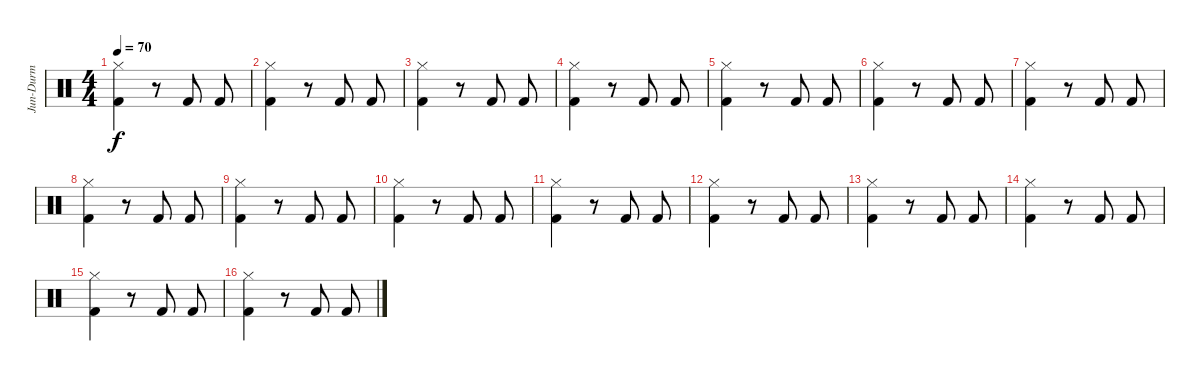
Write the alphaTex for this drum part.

\track ("Jun-Durm" "Jun-Durm") {instrument percussion}
\staff {score}
\articulation defaults
\ts (4 4)
\tempo 70
\clef neutral
\ks c
("Hi-Hat (closed)" "Kick (hit) 2").4{dy f} r.8 "Kick (hit) 2".8 "Kick (hit) 2".8 |
("Hi-Hat (closed)" "Kick (hit) 2").4 r.8 "Kick (hit) 2".8 "Kick (hit) 2".8 |
("Hi-Hat (closed)" "Kick (hit) 2").4 r.8 "Kick (hit) 2".8 "Kick (hit) 2".8 |
("Hi-Hat (closed)" "Kick (hit) 2").4 r.8 "Kick (hit) 2".8 "Kick (hit) 2".8 |
("Hi-Hat (closed)" "Kick (hit) 2").4 r.8 "Kick (hit) 2".8 "Kick (hit) 2".8 |
("Hi-Hat (closed)" "Kick (hit) 2").4 r.8 "Kick (hit) 2".8 "Kick (hit) 2".8 |
("Hi-Hat (closed)" "Kick (hit) 2").4 r.8 "Kick (hit) 2".8 "Kick (hit) 2".8 |
("Hi-Hat (closed)" "Kick (hit) 2").4 r.8 "Kick (hit) 2".8 "Kick (hit) 2".8 |
("Hi-Hat (closed)" "Kick (hit) 2").4 r.8 "Kick (hit) 2".8 "Kick (hit) 2".8 |
("Hi-Hat (closed)" "Kick (hit) 2").4 r.8 "Kick (hit) 2".8 "Kick (hit) 2".8 |
("Hi-Hat (closed)" "Kick (hit) 2").4 r.8 "Kick (hit) 2".8 "Kick (hit) 2".8 |
("Hi-Hat (closed)" "Kick (hit) 2").4 r.8 "Kick (hit) 2".8 "Kick (hit) 2".8 |
("Hi-Hat (closed)" "Kick (hit) 2").4 r.8 "Kick (hit) 2".8 "Kick (hit) 2".8 |
("Hi-Hat (closed)" "Kick (hit) 2").4 r.8 "Kick (hit) 2".8 "Kick (hit) 2".8 |
("Hi-Hat (closed)" "Kick (hit) 2").4 r.8 "Kick (hit) 2".8 "Kick (hit) 2".8 |
("Hi-Hat (closed)" "Kick (hit) 2").4 r.8 "Kick (hit) 2".8 "Kick (hit) 2".8
